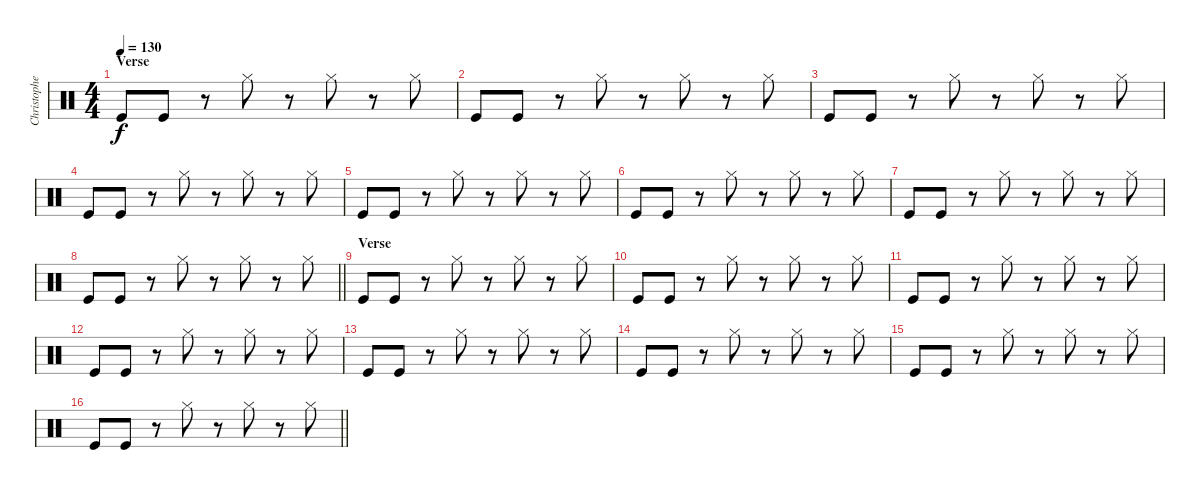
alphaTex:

\track ("Christopher - Drums" "Christophe") {instrument percussion}
\staff {score}
\articulation defaults
\ts (4 4)
\section ("" "Verse")
\tempo 130
\clef neutral
\ks c "Kick (hit)".8{dy f} "Kick (hit)".8
r.8 "Hi-Hat (closed)".8 r.8 "Hi-Hat (closed)".8 r.8 "Hi-Hat (closed)".8 |
"Kick (hit)".8 "Kick (hit)".8 r.8 "Hi-Hat (closed)".8 r.8 "Hi-Hat (closed)".8 r.8 "Hi-Hat (closed)".8 |
"Kick (hit)".8 "Kick (hit)".8 r.8 "Hi-Hat (closed)".8 r.8 "Hi-Hat (closed)".8 r.8 "Hi-Hat (closed)".8 |
"Kick (hit)".8 "Kick (hit)".8 r.8 "Hi-Hat (closed)".8 r.8 "Hi-Hat (closed)".8 r.8 "Hi-Hat (closed)".8 |
"Kick (hit)".8 "Kick (hit)".8 r.8 "Hi-Hat (closed)".8 r.8 "Hi-Hat (closed)".8 r.8 "Hi-Hat (closed)".8 |
"Kick (hit)".8 "Kick (hit)".8 r.8 "Hi-Hat (closed)".8 r.8 "Hi-Hat (closed)".8 r.8 "Hi-Hat (closed)".8 |
"Kick (hit)".8 "Kick (hit)".8 r.8 "Hi-Hat (closed)".8 r.8 "Hi-Hat (closed)".8 r.8 "Hi-Hat (closed)".8 |
\barLineRight lightlight "Kick (hit)".8 "Kick (hit)".8
r.8 "Hi-Hat (closed)".8 r.8 "Hi-Hat (closed)".8 r.8 "Hi-Hat (closed)".8 |
\section ("" "Verse")
"Kick (hit)".8 "Kick (hit)".8 r.8 "Hi-Hat (closed)".8 r.8 "Hi-Hat (closed)".8 r.8 "Hi-Hat (closed)".8 |
"Kick (hit)".8 "Kick (hit)".8 r.8 "Hi-Hat (closed)".8 r.8 "Hi-Hat (closed)".8 r.8 "Hi-Hat (closed)".8 |
"Kick (hit)".8 "Kick (hit)".8 r.8 "Hi-Hat (closed)".8 r.8 "Hi-Hat (closed)".8 r.8 "Hi-Hat (closed)".8 |
"Kick (hit)".8 "Kick (hit)".8 r.8 "Hi-Hat (closed)".8 r.8 "Hi-Hat (closed)".8 r.8 "Hi-Hat (closed)".8 |
"Kick (hit)".8 "Kick (hit)".8 r.8 "Hi-Hat (closed)".8 r.8 "Hi-Hat (closed)".8 r.8 "Hi-Hat (closed)".8 |
"Kick (hit)".8 "Kick (hit)".8 r.8 "Hi-Hat (closed)".8 r.8 "Hi-Hat (closed)".8 r.8 "Hi-Hat (closed)".8 |
"Kick (hit)".8 "Kick (hit)".8 r.8 "Hi-Hat (closed)".8 r.8 "Hi-Hat (closed)".8 r.8 "Hi-Hat (closed)".8 |
\barLineRight lightlight "Kick (hit)".8 "Kick (hit)".8
r.8 "Hi-Hat (closed)".8 r.8 "Hi-Hat (closed)".8 r.8 "Hi-Hat (closed)".8
